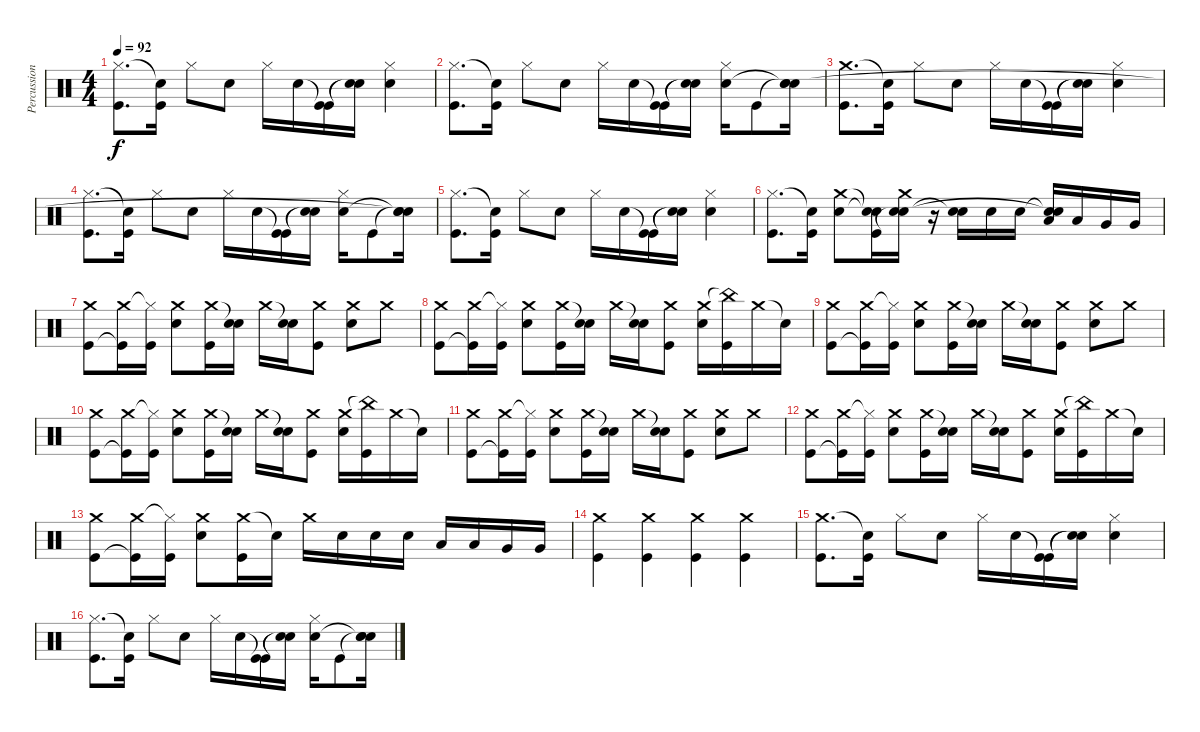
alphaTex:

\track ("Percussion" "Percussion") {instrument percussion}
\staff {score}
\articulation defaults
\ts (4 4)
\tempo 92
\clef neutral
\ks c
("Hi-Hat (closed)" "Kick (hit)").8{d dy f} ("Snare (hit)"{t} "Kick (hit)").16 "Hi-Hat (closed)".8 "Electric Snare (hit)".8 "Hi-Hat (closed)".16 "Electric Snare (hit)".16 ("Kick (hit)"{t} "Kick (hit)").16 ("Snare (hit)"{t} "Snare (hit)"{t}).16 ("Hi-Hat (closed)" "Electric Snare (hit)").4 |
("Hi-Hat (closed)" "Kick (hit)").8{d} ("Snare (hit)"{t} "Kick (hit)").16 "Hi-Hat (closed)".8 "Electric Snare (hit)".8 "Hi-Hat (closed)".16 "Electric Snare (hit)".16 ("Kick (hit)"{t} "Kick (hit)").16 ("Snare (hit)"{t} "Snare (hit)"{t}).16 ("Hi-Hat (closed)" "Electric Snare (hit)").16 "Kick (hit)".8 ("Snare (hit)"{t} "Snare (hit)"{t} "Snare (hit)"{t}).16 |
("Crash medium (hit)" "Kick (hit)").8{d} ("Snare (hit)"{t} "Kick (hit)").16 "Hi-Hat (closed)".8 "Electric Snare (hit)".8 "Hi-Hat (closed)".16 "Electric Snare (hit)".16 ("Kick (hit)"{t} "Kick (hit)").16 ("Snare (hit)"{t} "Snare (hit)"{t}).16 ("Hi-Hat (closed)" "Electric Snare (hit)").4 |
("Hi-Hat (closed)" "Kick (hit)").8{d} ("Snare (hit)"{t} "Kick (hit)").16 "Hi-Hat (closed)".8 "Electric Snare (hit)".8 "Hi-Hat (closed)".16 "Electric Snare (hit)".16 ("Kick (hit)"{t} "Kick (hit)").16 ("Snare (hit)"{t} "Snare (hit)"{t}).16 ("Hi-Hat (closed)" "Electric Snare (hit)").16 "Kick (hit)".8 ("Snare (hit)"{t} "Snare (hit)"{t} "Snare (hit)"{t}).16 |
("Hi-Hat (closed)" "Kick (hit)").8{d} ("Snare (hit)"{t} "Kick (hit)").16 "Hi-Hat (closed)".8 "Electric Snare (hit)".8 "Hi-Hat (closed)".16 "Electric Snare (hit)".16 ("Kick (hit)"{t} "Kick (hit)").16 ("Snare (hit)"{t} "Snare (hit)"{t}).16 ("Hi-Hat (closed)" "Electric Snare (hit)").4 |
("Hi-Hat (closed)" "Kick (hit)").8{d} ("Snare (hit)"{t} "Kick (hit)").16 ("Crash medium (hit)" "Electric Snare (hit)").8 ("Snare (hit)"{t} "Electric Snare (hit)"{t} "Kick (hit)").16 ("Crash medium (hit)" "Electric Snare (hit)" "Snare (hit)"{t}).16 r.16 ("Electric Snare (hit)" "Snare (hit)"{t}).16 "Electric Snare (hit)".16 "Electric Snare (hit)".16 ("Snare (hit)"{t} "Low Tom (hit)" "Snare (hit)"{t}).16 "Low Tom (hit)".16 "Very Low Tom (hit)".16 "Very Low Tom (hit)".16 |
("Crash medium (hit)" "Kick (hit)").8 ("Crash medium (hit)" "Kick (hit)"{t}).16 ("Hi-Hat (closed)"{t} "Kick (hit)").16 ("Crash medium (hit)" "Electric Snare (hit)").8 ("Crash medium (hit)" "Kick (hit)").16 ("Snare (hit)"{t} "Electric Snare (hit)").16 "Crash medium (hit)".16 ("Snare (hit)"{t} "Electric Snare (hit)").16 ("Crash medium (hit)" "Kick (hit)").8 ("Crash medium (hit)" "Electric Snare (hit)").8 "Crash medium (hit)".8 |
("Crash medium (hit)" "Kick (hit)").8 ("Crash medium (hit)" "Kick (hit)"{t}).16 ("Hi-Hat (closed)"{t} "Kick (hit)").16 ("Crash medium (hit)" "Electric Snare (hit)").8 ("Crash medium (hit)" "Kick (hit)").16 ("Snare (hit)"{t} "Electric Snare (hit)").16 "Crash medium (hit)".16 ("Snare (hit)"{t} "Electric Snare (hit)").16 ("Crash medium (hit)" "Kick (hit)").8 ("Crash medium (hit)" "Electric Snare (hit)").16 ("China (hit)"{t} "Kick (hit)").16 "Crash medium (hit)".16 "Snare (hit)"{t}.16 |
("Crash medium (hit)" "Kick (hit)").8 ("Crash medium (hit)" "Kick (hit)"{t}).16 ("Hi-Hat (closed)"{t} "Kick (hit)").16 ("Crash medium (hit)" "Electric Snare (hit)").8 ("Crash medium (hit)" "Kick (hit)").16 ("Snare (hit)"{t} "Electric Snare (hit)").16 "Crash medium (hit)".16 ("Snare (hit)"{t} "Electric Snare (hit)").16 ("Crash medium (hit)" "Kick (hit)").8 ("Crash medium (hit)" "Electric Snare (hit)").8 "Crash medium (hit)".8 |
("Crash medium (hit)" "Kick (hit)").8 ("Crash medium (hit)" "Kick (hit)"{t}).16 ("Hi-Hat (closed)"{t} "Kick (hit)").16 ("Crash medium (hit)" "Electric Snare (hit)").8 ("Crash medium (hit)" "Kick (hit)").16 ("Snare (hit)"{t} "Electric Snare (hit)").16 "Crash medium (hit)".16 ("Snare (hit)"{t} "Electric Snare (hit)").16 ("Crash medium (hit)" "Kick (hit)").8 ("Crash medium (hit)" "Electric Snare (hit)").16 ("China (hit)"{t} "Kick (hit)").16 "Crash medium (hit)".16 "Snare (hit)"{t}.16 |
("Crash medium (hit)" "Kick (hit)").8 ("Crash medium (hit)" "Kick (hit)"{t}).16 ("Hi-Hat (closed)"{t} "Kick (hit)").16 ("Crash medium (hit)" "Electric Snare (hit)").8 ("Crash medium (hit)" "Kick (hit)").16 ("Snare (hit)"{t} "Electric Snare (hit)").16 "Crash medium (hit)".16 ("Snare (hit)"{t} "Electric Snare (hit)").16 ("Crash medium (hit)" "Kick (hit)").8 ("Crash medium (hit)" "Electric Snare (hit)").8 "Crash medium (hit)".8 |
("Crash medium (hit)" "Kick (hit)").8 ("Crash medium (hit)" "Kick (hit)"{t}).16 ("Hi-Hat (closed)"{t} "Kick (hit)").16 ("Crash medium (hit)" "Electric Snare (hit)").8 ("Crash medium (hit)" "Kick (hit)").16 ("Snare (hit)"{t} "Electric Snare (hit)").16 "Crash medium (hit)".16 ("Snare (hit)"{t} "Electric Snare (hit)").16 ("Crash medium (hit)" "Kick (hit)").8 ("Crash medium (hit)" "Electric Snare (hit)").16 ("China (hit)"{t} "Kick (hit)").16 "Crash medium (hit)".16 "Snare (hit)"{t}.16 |
("Crash medium (hit)" "Kick (hit)").8 ("Crash medium (hit)" "Kick (hit)"{t}).16 ("Hi-Hat (closed)"{t} "Kick (hit)").16 ("Crash medium (hit)" "Electric Snare (hit)").8 ("Crash medium (hit)" "Kick (hit)").16 "Snare (hit)"{t}.16 "Crash medium (hit)".16 "Electric Snare (hit)".16 "Electric Snare (hit)".16 "Electric Snare (hit)".16 "Low Tom (hit)".16 "Low Tom (hit)".16 "Very Low Tom (hit)".16 "Very Low Tom (hit)".16 |
("Crash medium (hit)" "Kick (hit)").4 ("Crash medium (hit)" "Kick (hit)").4 ("Crash medium (hit)" "Kick (hit)").4 ("Crash medium (hit)" "Kick (hit)").4 |
("Crash medium (hit)" "Kick (hit)").8{d} ("Snare (hit)"{t} "Kick (hit)").16 "Hi-Hat (closed)".8 "Electric Snare (hit)".8 "Hi-Hat (closed)".16 "Electric Snare (hit)".16 ("Kick (hit)"{t} "Kick (hit)").16 ("Snare (hit)"{t} "Snare (hit)"{t}).16 ("Hi-Hat (closed)" "Electric Snare (hit)").4 |
("Hi-Hat (closed)" "Kick (hit)").8{d} ("Snare (hit)"{t} "Kick (hit)").16 "Hi-Hat (closed)".8 "Electric Snare (hit)".8 "Hi-Hat (closed)".16 "Electric Snare (hit)".16 ("Kick (hit)"{t} "Kick (hit)").16 ("Snare (hit)"{t} "Snare (hit)"{t}).16 ("Hi-Hat (closed)" "Electric Snare (hit)").16 "Kick (hit)".8 ("Snare (hit)"{t} "Snare (hit)"{t} "Snare (hit)").16
